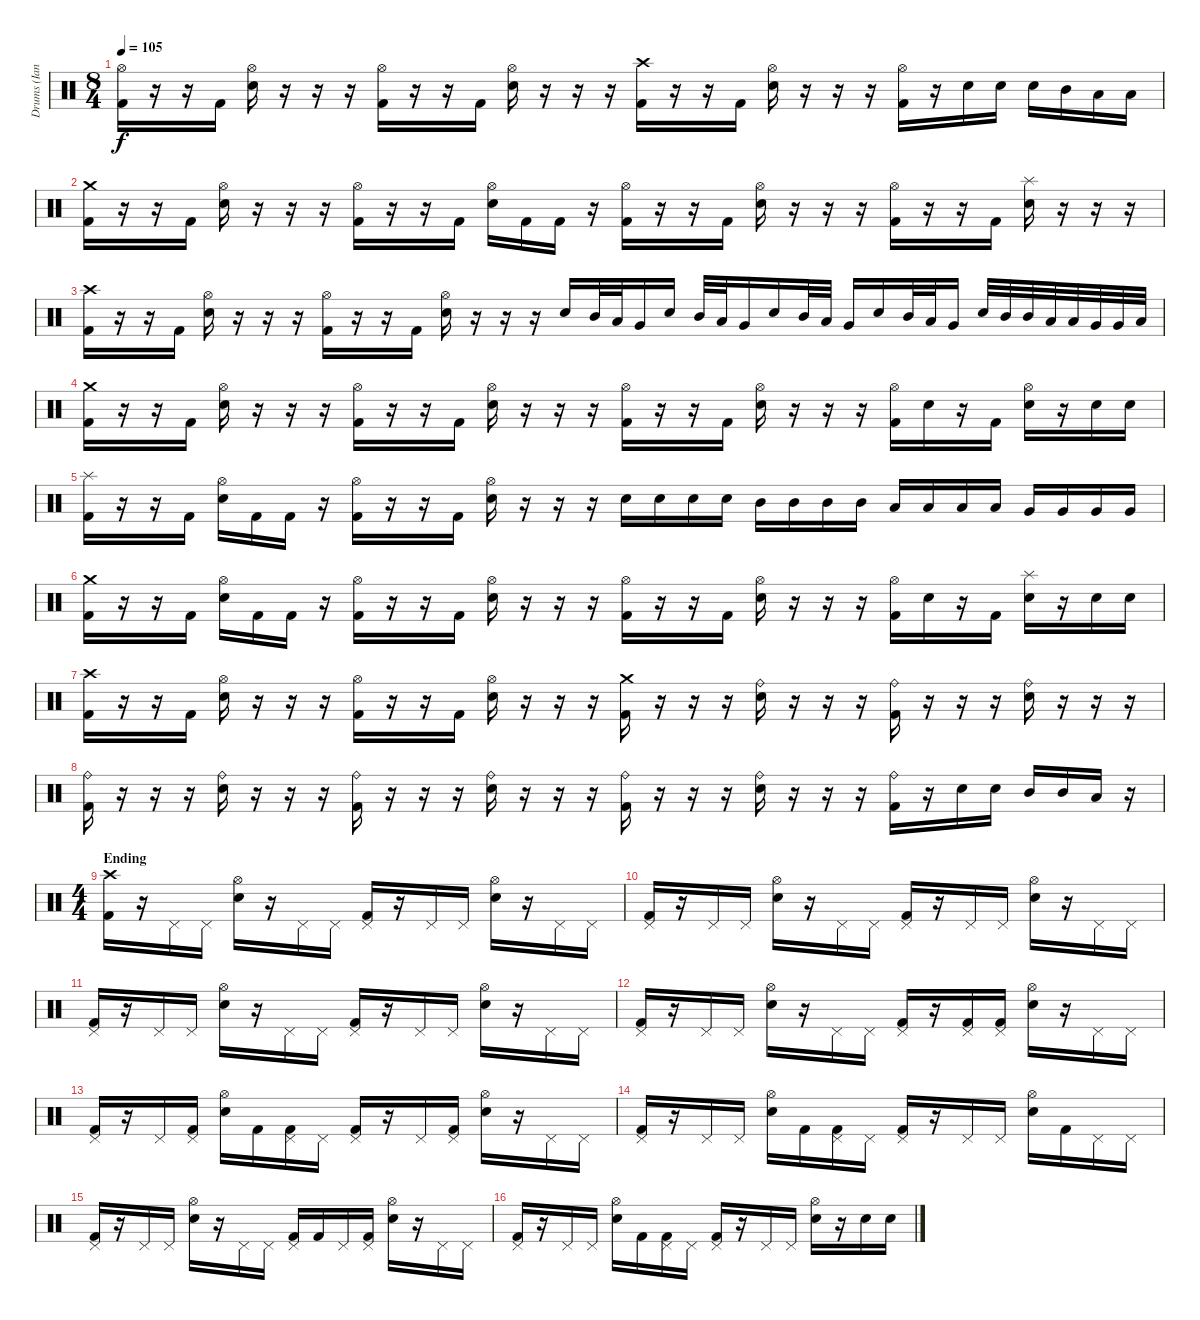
\track ("Drums (Ian Paice)" "Drums (Ian") {instrument percussion}
\staff {score}
\articulation defaults
\ts (8 4)
\tempo 105
\clef neutral
\ks c
("Hi-Hat (open)" "Kick (hit) 2").16{dy f} r.16 r.16 "Kick (hit) 2".16 ("Hi-Hat (open)" "Electric Snare (hit)").16 r.16 r.16 r.16 ("Hi-Hat (open)" "Kick (hit) 2").16 r.16 r.16 "Kick (hit) 2".16 ("Hi-Hat (open)" "Electric Snare (hit)").16 r.16 r.16 r.16 ("Crash high (hit)" "Kick (hit) 2").16 r.16 r.16 "Kick (hit) 2".16 ("Hi-Hat (open)" "Electric Snare (hit)").16 r.16 r.16 r.16 ("Hi-Hat (open)" "Kick (hit) 2").16 r.16 "Electric Snare (hit)".16 "Electric Snare (hit)".16 "Electric Snare (hit)".16 "Mid Tom (hit)".16 "Low Tom (hit)".16 "Low Tom (hit)".16 |
("Crash medium (hit)" "Kick (hit) 2").16 r.16 r.16 "Kick (hit) 2".16 ("Hi-Hat (open)" "Electric Snare (hit)").16 r.16 r.16 r.16 ("Hi-Hat (open)" "Kick (hit) 2").16 r.16 r.16 "Kick (hit) 2".16 ("Hi-Hat (open)" "Electric Snare (hit)").16 "Kick (hit) 2".16 "Kick (hit) 2".16 r.16 ("Hi-Hat (open)" "Kick (hit) 2").16 r.16 r.16 "Kick (hit) 2".16 ("Hi-Hat (open)" "Electric Snare (hit)").16 r.16 r.16 r.16 ("Hi-Hat (open)" "Kick (hit) 2").16 r.16 r.16 "Kick (hit) 2".16 ("Splash (hit)" "Electric Snare (hit)").16 r.16 r.16 r.16 |
("Crash high (hit)" "Kick (hit) 2").16 r.16 r.16 "Kick (hit) 2".16 ("Hi-Hat (open)" "Electric Snare (hit)").16 r.16 r.16 r.16 ("Hi-Hat (open)" "Kick (hit) 2").16 r.16 r.16 "Kick (hit) 2".16 ("Hi-Hat (open)" "Electric Snare (hit)").16 r.16 r.16 r.16 "Electric Snare (hit)".16 "Mid Tom (hit)".32 "Low Tom (hit)".32 "Very Low Tom (hit)".16 "Electric Snare (hit)".16 "Mid Tom (hit)".32 "Low Tom (hit)".32 "Very Low Tom (hit)".16 "Electric Snare (hit)".16 "Mid Tom (hit)".32 "Low Tom (hit)".32 "Very Low Tom (hit)".16 "Electric Snare (hit)".16 "Mid Tom (hit)".32 "Low Tom (hit)".32 "Very Low Tom (hit)".16 "Electric Snare (hit)".32 "Mid Tom (hit)".32 "Mid Tom (hit)".32 "Low Tom (hit)".32 "Low Tom (hit)".32 "Very Low Tom (hit)".32 "Very Low Tom (hit)".32 "Low Floor Tom (hit)".32 |
("Crash medium (hit)" "Kick (hit) 2").16 r.16 r.16 "Kick (hit) 2".16 ("Hi-Hat (open)" "Electric Snare (hit)").16 r.16 r.16 r.16 ("Hi-Hat (open)" "Kick (hit) 2").16 r.16 r.16 "Kick (hit) 2".16 ("Hi-Hat (open)" "Electric Snare (hit)").16 r.16 r.16 r.16 ("Hi-Hat (open)" "Kick (hit) 2").16 r.16 r.16 "Kick (hit) 2".16 ("Hi-Hat (open)" "Electric Snare (hit)").16 r.16 r.16 r.16 ("Hi-Hat (open)" "Kick (hit) 2").16 "Electric Snare (hit)".16 r.16 "Kick (hit) 2".16 ("Hi-Hat (open)" "Electric Snare (hit)").16 r.16 "Electric Snare (hit)".16 "Electric Snare (hit)".16 |
("Splash (hit)" "Kick (hit) 2").16 r.16 r.16 "Kick (hit) 2".16 ("Hi-Hat (open)" "Electric Snare (hit)").16 "Kick (hit) 2".16 "Kick (hit) 2".16 r.16 ("Hi-Hat (open)" "Kick (hit) 2").16 r.16 r.16 "Kick (hit) 2".16 ("Hi-Hat (open)" "Electric Snare (hit)").16 r.16 r.16 r.16 "Electric Snare (hit)".16 "Electric Snare (hit)".16 "Electric Snare (hit)".16 "Electric Snare (hit)".16 "Mid Tom (hit)".16 "Mid Tom (hit)".16 "Mid Tom (hit)".16 "Mid Tom (hit)".16 "Low Tom (hit)".16 "Low Tom (hit)".16 "Low Tom (hit)".16 "Low Tom (hit)".16 "Very Low Tom (hit)".16 "Very Low Tom (hit)".16 "Very Low Tom (hit)".16 "Very Low Tom (hit)".16 |
("Crash medium (hit)" "Kick (hit) 2").16 r.16 r.16 "Kick (hit) 2".16 ("Hi-Hat (open)" "Electric Snare (hit)").16 "Kick (hit) 2".16 "Kick (hit) 2".16 r.16 ("Hi-Hat (open)" "Kick (hit) 2").16 r.16 r.16 "Kick (hit) 2".16 ("Hi-Hat (open)" "Electric Snare (hit)").16 r.16 r.16 r.16 ("Hi-Hat (open)" "Kick (hit) 2").16 r.16 r.16 "Kick (hit) 2".16 ("Hi-Hat (open)" "Electric Snare (hit)").16 r.16 r.16 r.16 ("Hi-Hat (open)" "Kick (hit) 2").16 "Electric Snare (hit)".16 r.16 "Kick (hit) 2".16 ("Splash (hit)" "Electric Snare (hit)").16 r.16 "Electric Snare (hit)".16 "Electric Snare (hit)".16 |
("Crash high (hit)" "Kick (hit) 2").16 r.16 r.16 "Kick (hit) 2".16 ("Hi-Hat (open)" "Electric Snare (hit)").16 r.16 r.16 r.16 ("Hi-Hat (open)" "Kick (hit) 2").16 r.16 r.16 "Kick (hit) 2".16 ("Hi-Hat (open)" "Electric Snare (hit)").16 r.16 r.16 r.16 ("Crash medium (hit)" "Kick (hit) 2").16 r.16 r.16 r.16 ("Ride (bell)" "Electric Snare (hit)").16 r.16 r.16 r.16 ("Ride (bell)" "Kick (hit) 2").16 r.16 r.16 r.16 ("Ride (bell)" "Electric Snare (hit)").16 r.16 r.16 r.16 |
("Ride (bell)" "Kick (hit) 2").16 r.16 r.16 r.16 ("Ride (bell)" "Electric Snare (hit)").16 r.16 r.16 r.16 ("Ride (bell)" "Kick (hit) 2").16 r.16 r.16 r.16 ("Ride (bell)" "Electric Snare (hit)").16 r.16 r.16 r.16 ("Ride (bell)" "Kick (hit) 2").16 r.16 r.16 r.16 ("Ride (bell)" "Electric Snare (hit)").16 r.16 r.16 r.16 ("Ride (bell)" "Kick (hit) 2").16 r.16 "Electric Snare (hit)".16 "Electric Snare (hit)".16 "Mid Tom (hit)".16 "Mid Tom (hit)".16 "Low Tom (hit)".16 r.16 |
\ts (4 4)
\section ("" "Ending")
("Crash high (hit)" "Kick (hit) 2").16 r.16 "Pedal Hi-Hat (hit)".16 "Pedal Hi-Hat (hit)".16 ("Hi-Hat (open)" "Electric Snare (hit)").16 r.16 "Pedal Hi-Hat (hit)".16 "Pedal Hi-Hat (hit)".16 ("Pedal Hi-Hat (hit)" "Kick (hit) 2").16 r.16 "Pedal Hi-Hat (hit)".16 "Pedal Hi-Hat (hit)".16 ("Hi-Hat (open)" "Electric Snare (hit)").16 r.16 "Pedal Hi-Hat (hit)".16 "Pedal Hi-Hat (hit)".16 |
("Pedal Hi-Hat (hit)" "Kick (hit) 2").16 r.16 "Pedal Hi-Hat (hit)".16 "Pedal Hi-Hat (hit)".16 ("Hi-Hat (open)" "Electric Snare (hit)").16 r.16 "Pedal Hi-Hat (hit)".16 "Pedal Hi-Hat (hit)".16 ("Pedal Hi-Hat (hit)" "Kick (hit) 2").16 r.16 "Pedal Hi-Hat (hit)".16 "Pedal Hi-Hat (hit)".16 ("Hi-Hat (open)" "Electric Snare (hit)").16 r.16 "Pedal Hi-Hat (hit)".16 "Pedal Hi-Hat (hit)".16 |
("Pedal Hi-Hat (hit)" "Kick (hit) 2").16 r.16 "Pedal Hi-Hat (hit)".16 "Pedal Hi-Hat (hit)".16 ("Hi-Hat (open)" "Electric Snare (hit)").16 r.16 "Pedal Hi-Hat (hit)".16 "Pedal Hi-Hat (hit)".16 ("Pedal Hi-Hat (hit)" "Kick (hit) 2").16 r.16 "Pedal Hi-Hat (hit)".16 "Pedal Hi-Hat (hit)".16 ("Hi-Hat (open)" "Electric Snare (hit)").16 r.16 "Pedal Hi-Hat (hit)".16 "Pedal Hi-Hat (hit)".16 |
("Pedal Hi-Hat (hit)" "Kick (hit) 2").16 r.16 "Pedal Hi-Hat (hit)".16 "Pedal Hi-Hat (hit)".16 ("Hi-Hat (open)" "Electric Snare (hit)").16 r.16 "Pedal Hi-Hat (hit)".16 "Pedal Hi-Hat (hit)".16 ("Pedal Hi-Hat (hit)" "Kick (hit) 2").16 r.16 ("Pedal Hi-Hat (hit)" "Kick (hit) 2").16 ("Pedal Hi-Hat (hit)" "Kick (hit) 2").16 ("Hi-Hat (open)" "Electric Snare (hit)").16 r.16 "Pedal Hi-Hat (hit)".16 "Pedal Hi-Hat (hit)".16 |
("Pedal Hi-Hat (hit)" "Kick (hit) 2").16 r.16 "Pedal Hi-Hat (hit)".16 ("Pedal Hi-Hat (hit)" "Kick (hit) 2").16 ("Hi-Hat (open)" "Electric Snare (hit)").16 "Kick (hit) 2".16 ("Pedal Hi-Hat (hit)" "Kick (hit) 2").16 "Pedal Hi-Hat (hit)".16 ("Pedal Hi-Hat (hit)" "Kick (hit) 2").16 r.16 "Pedal Hi-Hat (hit)".16 ("Pedal Hi-Hat (hit)" "Kick (hit) 2").16 ("Hi-Hat (open)" "Electric Snare (hit)").16 r.16 "Pedal Hi-Hat (hit)".16 "Pedal Hi-Hat (hit)".16 |
("Pedal Hi-Hat (hit)" "Kick (hit) 2").16 r.16 "Pedal Hi-Hat (hit)".16 "Pedal Hi-Hat (hit)".16 ("Hi-Hat (open)" "Electric Snare (hit)").16 "Kick (hit) 2".16 ("Pedal Hi-Hat (hit)" "Kick (hit) 2").16 "Pedal Hi-Hat (hit)".16 ("Pedal Hi-Hat (hit)" "Kick (hit) 2").16 r.16 "Pedal Hi-Hat (hit)".16 "Pedal Hi-Hat (hit)".16 ("Hi-Hat (open)" "Electric Snare (hit)").16 "Kick (hit) 2".16 "Pedal Hi-Hat (hit)".16 "Pedal Hi-Hat (hit)".16 |
("Pedal Hi-Hat (hit)" "Kick (hit) 2").16 r.16 "Pedal Hi-Hat (hit)".16 "Pedal Hi-Hat (hit)".16 ("Hi-Hat (open)" "Electric Snare (hit)").16 r.16 "Pedal Hi-Hat (hit)".16 "Pedal Hi-Hat (hit)".16 ("Pedal Hi-Hat (hit)" "Kick (hit) 2").16 "Kick (hit) 2".16 "Pedal Hi-Hat (hit)".16 ("Pedal Hi-Hat (hit)" "Kick (hit) 2").16 ("Hi-Hat (open)" "Electric Snare (hit)").16 r.16 "Pedal Hi-Hat (hit)".16 "Pedal Hi-Hat (hit)".16 |
("Pedal Hi-Hat (hit)" "Kick (hit) 2").16 r.16 "Pedal Hi-Hat (hit)".16 "Pedal Hi-Hat (hit)".16 ("Hi-Hat (open)" "Electric Snare (hit)").16 "Kick (hit) 2".16 ("Pedal Hi-Hat (hit)" "Kick (hit) 2").16 "Pedal Hi-Hat (hit)".16 ("Pedal Hi-Hat (hit)" "Kick (hit) 2").16 r.16 "Pedal Hi-Hat (hit)".16 "Pedal Hi-Hat (hit)".16 ("Hi-Hat (open)" "Electric Snare (hit)").16 r.16 "Electric Snare (hit)".16 "Electric Snare (hit)".16
